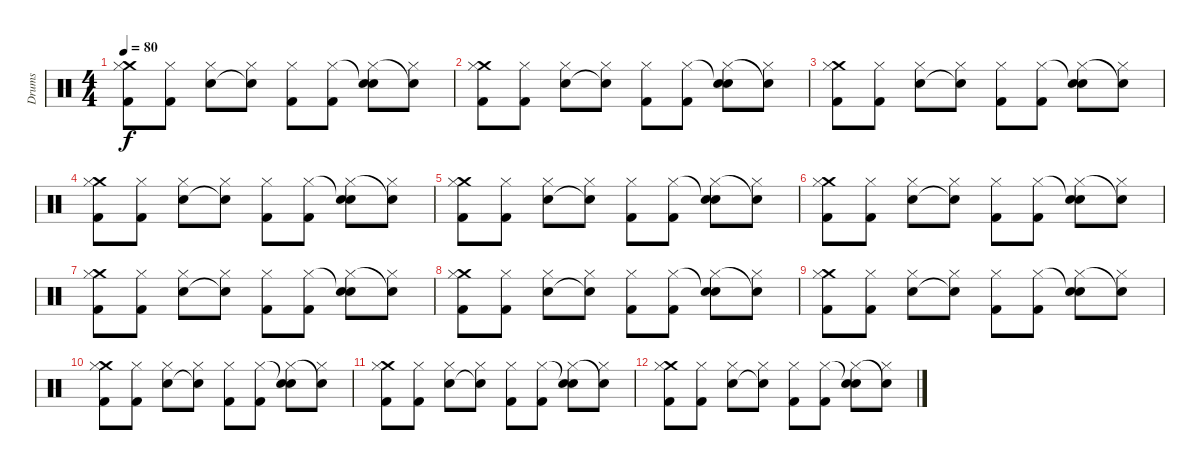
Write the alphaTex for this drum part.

\track ("Drums" "Drums") {instrument percussion}
\staff {score}
\articulation defaults
\ts (4 4)
\tempo 80
\clef neutral
\ks c
("Crash medium (hit)" "Hi-Hat (closed)" "Kick (hit) 2").8{dy f} ("Hi-Hat (closed)" "Kick (hit) 2").8 ("Hi-Hat (closed)" "Electric Snare (hit)").8 ("Hi-Hat (closed)" "Snare (hit)"{t}).8 ("Hi-Hat (closed)" "Kick (hit) 2").8 ("Hi-Hat (closed)" "Kick (hit) 2").8 ("Snare (hit)"{t} "Hi-Hat (closed)" "Electric Snare (hit)").8 ("Hi-Hat (closed)" "Snare (hit)"{t}).8 |
("Crash medium (hit)" "Hi-Hat (closed)" "Kick (hit) 2").8 ("Hi-Hat (closed)" "Kick (hit) 2").8 ("Hi-Hat (closed)" "Electric Snare (hit)").8 ("Hi-Hat (closed)" "Snare (hit)"{t}).8 ("Hi-Hat (closed)" "Kick (hit) 2").8 ("Hi-Hat (closed)" "Kick (hit) 2").8 ("Snare (hit)"{t} "Hi-Hat (closed)" "Electric Snare (hit)").8 ("Hi-Hat (closed)" "Snare (hit)"{t}).8 |
("Crash medium (hit)" "Hi-Hat (closed)" "Kick (hit) 2").8 ("Hi-Hat (closed)" "Kick (hit) 2").8 ("Hi-Hat (closed)" "Electric Snare (hit)").8 ("Hi-Hat (closed)" "Snare (hit)"{t}).8 ("Hi-Hat (closed)" "Kick (hit) 2").8 ("Hi-Hat (closed)" "Kick (hit) 2").8 ("Snare (hit)"{t} "Hi-Hat (closed)" "Electric Snare (hit)").8 ("Hi-Hat (closed)" "Snare (hit)"{t}).8 |
("Crash medium (hit)" "Hi-Hat (closed)" "Kick (hit) 2").8 ("Hi-Hat (closed)" "Kick (hit) 2").8 ("Hi-Hat (closed)" "Electric Snare (hit)").8 ("Hi-Hat (closed)" "Snare (hit)"{t}).8 ("Hi-Hat (closed)" "Kick (hit) 2").8 ("Hi-Hat (closed)" "Kick (hit) 2").8 ("Snare (hit)"{t} "Hi-Hat (closed)" "Electric Snare (hit)").8 ("Hi-Hat (closed)" "Snare (hit)"{t}).8 |
("Crash medium (hit)" "Hi-Hat (closed)" "Kick (hit) 2").8 ("Hi-Hat (closed)" "Kick (hit) 2").8 ("Hi-Hat (closed)" "Electric Snare (hit)").8 ("Hi-Hat (closed)" "Snare (hit)"{t}).8 ("Hi-Hat (closed)" "Kick (hit) 2").8 ("Hi-Hat (closed)" "Kick (hit) 2").8 ("Snare (hit)"{t} "Hi-Hat (closed)" "Electric Snare (hit)").8 ("Hi-Hat (closed)" "Snare (hit)"{t}).8 |
("Crash medium (hit)" "Hi-Hat (closed)" "Kick (hit) 2").8 ("Hi-Hat (closed)" "Kick (hit) 2").8 ("Hi-Hat (closed)" "Electric Snare (hit)").8 ("Hi-Hat (closed)" "Snare (hit)"{t}).8 ("Hi-Hat (closed)" "Kick (hit) 2").8 ("Hi-Hat (closed)" "Kick (hit) 2").8 ("Snare (hit)"{t} "Hi-Hat (closed)" "Electric Snare (hit)").8 ("Hi-Hat (closed)" "Snare (hit)"{t}).8 |
("Crash medium (hit)" "Hi-Hat (closed)" "Kick (hit) 2").8 ("Hi-Hat (closed)" "Kick (hit) 2").8 ("Hi-Hat (closed)" "Electric Snare (hit)").8 ("Hi-Hat (closed)" "Snare (hit)"{t}).8 ("Hi-Hat (closed)" "Kick (hit) 2").8 ("Hi-Hat (closed)" "Kick (hit) 2").8 ("Snare (hit)"{t} "Hi-Hat (closed)" "Electric Snare (hit)").8 ("Hi-Hat (closed)" "Snare (hit)"{t}).8 |
("Crash medium (hit)" "Hi-Hat (closed)" "Kick (hit) 2").8 ("Hi-Hat (closed)" "Kick (hit) 2").8 ("Hi-Hat (closed)" "Electric Snare (hit)").8 ("Hi-Hat (closed)" "Snare (hit)"{t}).8 ("Hi-Hat (closed)" "Kick (hit) 2").8 ("Hi-Hat (closed)" "Kick (hit) 2").8 ("Snare (hit)"{t} "Hi-Hat (closed)" "Electric Snare (hit)").8 ("Hi-Hat (closed)" "Snare (hit)"{t}).8 |
("Crash medium (hit)" "Hi-Hat (closed)" "Kick (hit) 2").8 ("Hi-Hat (closed)" "Kick (hit) 2").8 ("Hi-Hat (closed)" "Electric Snare (hit)").8 ("Hi-Hat (closed)" "Snare (hit)"{t}).8 ("Hi-Hat (closed)" "Kick (hit) 2").8 ("Hi-Hat (closed)" "Kick (hit) 2").8 ("Snare (hit)"{t} "Hi-Hat (closed)" "Electric Snare (hit)").8 ("Hi-Hat (closed)" "Snare (hit)"{t}).8 |
("Crash medium (hit)" "Hi-Hat (closed)" "Kick (hit) 2").8 ("Hi-Hat (closed)" "Kick (hit) 2").8 ("Hi-Hat (closed)" "Electric Snare (hit)").8 ("Hi-Hat (closed)" "Snare (hit)"{t}).8 ("Hi-Hat (closed)" "Kick (hit) 2").8 ("Hi-Hat (closed)" "Kick (hit) 2").8 ("Snare (hit)"{t} "Hi-Hat (closed)" "Electric Snare (hit)").8 ("Hi-Hat (closed)" "Snare (hit)"{t}).8 |
("Crash medium (hit)" "Hi-Hat (closed)" "Kick (hit) 2").8 ("Hi-Hat (closed)" "Kick (hit) 2").8 ("Hi-Hat (closed)" "Electric Snare (hit)").8 ("Hi-Hat (closed)" "Snare (hit)"{t}).8 ("Hi-Hat (closed)" "Kick (hit) 2").8 ("Hi-Hat (closed)" "Kick (hit) 2").8 ("Snare (hit)"{t} "Hi-Hat (closed)" "Electric Snare (hit)").8 ("Hi-Hat (closed)" "Snare (hit)"{t}).8 |
("Crash medium (hit)" "Hi-Hat (closed)" "Kick (hit) 2").8 ("Hi-Hat (closed)" "Kick (hit) 2").8 ("Hi-Hat (closed)" "Electric Snare (hit)").8 ("Hi-Hat (closed)" "Snare (hit)"{t}).8 ("Hi-Hat (closed)" "Kick (hit) 2").8 ("Hi-Hat (closed)" "Kick (hit) 2").8 ("Snare (hit)"{t} "Hi-Hat (closed)" "Electric Snare (hit)").8 ("Hi-Hat (closed)" "Snare (hit)"{t}).8
